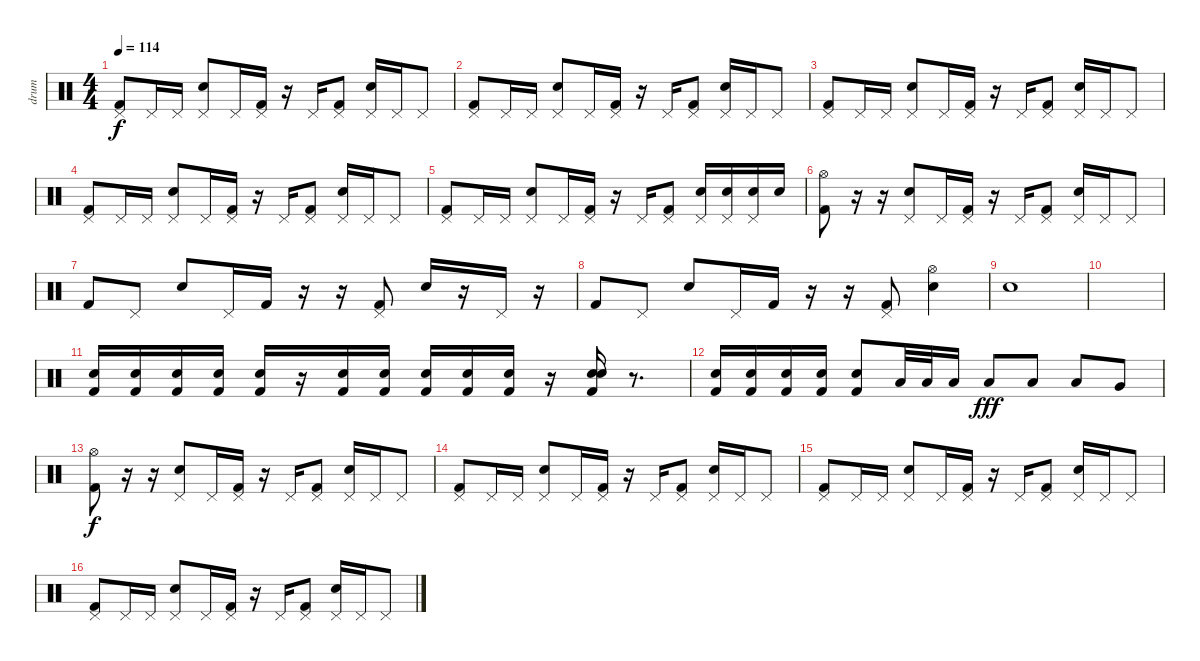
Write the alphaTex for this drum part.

\track ("drum" "drum") {instrument percussion}
\staff {score}
\articulation defaults
\ts (4 4)
\tempo 114
\clef neutral
\ks c
("Pedal Hi-Hat (hit)" "Kick (hit) 2").8{dy f} "Pedal Hi-Hat (hit)".16 "Pedal Hi-Hat (hit)".16 ("Pedal Hi-Hat (hit)" "Electric Snare (hit)").8 "Pedal Hi-Hat (hit)".16 ("Pedal Hi-Hat (hit)" "Kick (hit) 2").16 r.16 "Pedal Hi-Hat (hit)".16 ("Pedal Hi-Hat (hit)" "Kick (hit) 2").8 ("Pedal Hi-Hat (hit)" "Electric Snare (hit)").16 "Pedal Hi-Hat (hit)".16 "Pedal Hi-Hat (hit)".8 |
("Pedal Hi-Hat (hit)" "Kick (hit) 2").8 "Pedal Hi-Hat (hit)".16 "Pedal Hi-Hat (hit)".16 ("Pedal Hi-Hat (hit)" "Electric Snare (hit)").8 "Pedal Hi-Hat (hit)".16 ("Pedal Hi-Hat (hit)" "Kick (hit) 2").16 r.16 "Pedal Hi-Hat (hit)".16 ("Pedal Hi-Hat (hit)" "Kick (hit) 2").8 ("Pedal Hi-Hat (hit)" "Electric Snare (hit)").16 "Pedal Hi-Hat (hit)".16 "Pedal Hi-Hat (hit)".8 |
("Pedal Hi-Hat (hit)" "Kick (hit) 2").8 "Pedal Hi-Hat (hit)".16 "Pedal Hi-Hat (hit)".16 ("Pedal Hi-Hat (hit)" "Electric Snare (hit)").8 "Pedal Hi-Hat (hit)".16 ("Pedal Hi-Hat (hit)" "Kick (hit) 2").16 r.16 "Pedal Hi-Hat (hit)".16 ("Pedal Hi-Hat (hit)" "Kick (hit) 2").8 ("Pedal Hi-Hat (hit)" "Electric Snare (hit)").16 "Pedal Hi-Hat (hit)".16 "Pedal Hi-Hat (hit)".8 |
("Pedal Hi-Hat (hit)" "Kick (hit) 2").8 "Pedal Hi-Hat (hit)".16 "Pedal Hi-Hat (hit)".16 ("Pedal Hi-Hat (hit)" "Electric Snare (hit)").8 "Pedal Hi-Hat (hit)".16 ("Pedal Hi-Hat (hit)" "Kick (hit) 2").16 r.16 "Pedal Hi-Hat (hit)".16 ("Pedal Hi-Hat (hit)" "Kick (hit) 2").8 ("Pedal Hi-Hat (hit)" "Electric Snare (hit)").16 "Pedal Hi-Hat (hit)".16 "Pedal Hi-Hat (hit)".8 |
("Pedal Hi-Hat (hit)" "Kick (hit) 2").8 "Pedal Hi-Hat (hit)".16 "Pedal Hi-Hat (hit)".16 ("Pedal Hi-Hat (hit)" "Electric Snare (hit)").8 "Pedal Hi-Hat (hit)".16 ("Pedal Hi-Hat (hit)" "Kick (hit) 2").16 r.16 "Pedal Hi-Hat (hit)".16 ("Pedal Hi-Hat (hit)" "Kick (hit) 2").8 ("Pedal Hi-Hat (hit)" "Electric Snare (hit)").16 ("Pedal Hi-Hat (hit)" "Electric Snare (hit)").16 ("Pedal Hi-Hat (hit)" "Electric Snare (hit)").16 "Electric Snare (hit)".16 |
("Hi-Hat (open)" "Kick (hit) 2").8 r.16 r.16 ("Pedal Hi-Hat (hit)" "Electric Snare (hit)").8 "Pedal Hi-Hat (hit)".16 ("Pedal Hi-Hat (hit)" "Kick (hit) 2").16 r.16 "Pedal Hi-Hat (hit)".16 ("Pedal Hi-Hat (hit)" "Kick (hit) 2").8 ("Pedal Hi-Hat (hit)" "Electric Snare (hit)").16 "Pedal Hi-Hat (hit)".16 "Pedal Hi-Hat (hit)".8 |
"Kick (hit) 2".8 "Pedal Hi-Hat (hit)".8 "Electric Snare (hit)".8 "Pedal Hi-Hat (hit)".16 "Kick (hit) 2".16 r.16 r.16 ("Pedal Hi-Hat (hit)" "Kick (hit) 2").8 "Electric Snare (hit)".16 r.16 "Pedal Hi-Hat (hit)".16 r.16 |
"Kick (hit) 2".8 "Pedal Hi-Hat (hit)".8 "Electric Snare (hit)".8 "Pedal Hi-Hat (hit)".16 "Kick (hit) 2".16 r.16 r.16 ("Pedal Hi-Hat (hit)" "Kick (hit) 2").8 ("Hi-Hat (open)" "Electric Snare (hit)").4 |
"Electric Snare (hit)".1 |
|
("Electric Snare (hit)" "Kick (hit) 2").16 ("Electric Snare (hit)" "Kick (hit) 2").16 ("Electric Snare (hit)" "Kick (hit) 2").16 ("Electric Snare (hit)" "Kick (hit) 2").16 ("Electric Snare (hit)" "Kick (hit) 2").16 r.16 ("Electric Snare (hit)" "Kick (hit) 2").16 ("Electric Snare (hit)" "Kick (hit) 2").16 ("Electric Snare (hit)" "Kick (hit) 2").16 ("Electric Snare (hit)" "Kick (hit) 2").16 ("Electric Snare (hit)" "Kick (hit) 2").16 r.16 ("Electric Snare (hit)" "Electric Snare (hit)" "Kick (hit) 2").16 r.8{d} |
("Electric Snare (hit)" "Kick (hit) 2").16 ("Electric Snare (hit)" "Kick (hit) 2").16 ("Electric Snare (hit)" "Kick (hit) 2").16 ("Electric Snare (hit)" "Kick (hit) 2").16 ("Electric Snare (hit)" "Kick (hit) 2").8 "Low Tom (hit)".32 "Low Tom (hit)".32 "Low Tom (hit)".16 "Low Tom (hit)".8{dy fff} "Low Tom (hit)".8 "Low Floor Tom (hit)".8 "Very Low Tom (hit)".8 |
("Hi-Hat (open)" "Kick (hit) 2").8{dy f} r.16 r.16 ("Pedal Hi-Hat (hit)" "Electric Snare (hit)").8 "Pedal Hi-Hat (hit)".16 ("Pedal Hi-Hat (hit)" "Kick (hit) 2").16 r.16 "Pedal Hi-Hat (hit)".16 ("Pedal Hi-Hat (hit)" "Kick (hit) 2").8 ("Pedal Hi-Hat (hit)" "Electric Snare (hit)").16 "Pedal Hi-Hat (hit)".16 "Pedal Hi-Hat (hit)".8 |
("Pedal Hi-Hat (hit)" "Kick (hit) 2").8 "Pedal Hi-Hat (hit)".16 "Pedal Hi-Hat (hit)".16 ("Pedal Hi-Hat (hit)" "Electric Snare (hit)").8 "Pedal Hi-Hat (hit)".16 ("Pedal Hi-Hat (hit)" "Kick (hit) 2").16 r.16 "Pedal Hi-Hat (hit)".16 ("Pedal Hi-Hat (hit)" "Kick (hit) 2").8 ("Pedal Hi-Hat (hit)" "Electric Snare (hit)").16 "Pedal Hi-Hat (hit)".16 "Pedal Hi-Hat (hit)".8 |
("Pedal Hi-Hat (hit)" "Kick (hit) 2").8 "Pedal Hi-Hat (hit)".16 "Pedal Hi-Hat (hit)".16 ("Pedal Hi-Hat (hit)" "Electric Snare (hit)").8 "Pedal Hi-Hat (hit)".16 ("Pedal Hi-Hat (hit)" "Kick (hit) 2").16 r.16 "Pedal Hi-Hat (hit)".16 ("Pedal Hi-Hat (hit)" "Kick (hit) 2").8 ("Pedal Hi-Hat (hit)" "Electric Snare (hit)").16 "Pedal Hi-Hat (hit)".16 "Pedal Hi-Hat (hit)".8 |
("Pedal Hi-Hat (hit)" "Kick (hit) 2").8 "Pedal Hi-Hat (hit)".16 "Pedal Hi-Hat (hit)".16 ("Pedal Hi-Hat (hit)" "Electric Snare (hit)").8 "Pedal Hi-Hat (hit)".16 ("Pedal Hi-Hat (hit)" "Kick (hit) 2").16 r.16 "Pedal Hi-Hat (hit)".16 ("Pedal Hi-Hat (hit)" "Kick (hit) 2").8 ("Pedal Hi-Hat (hit)" "Electric Snare (hit)").16 "Pedal Hi-Hat (hit)".16 "Pedal Hi-Hat (hit)".8
